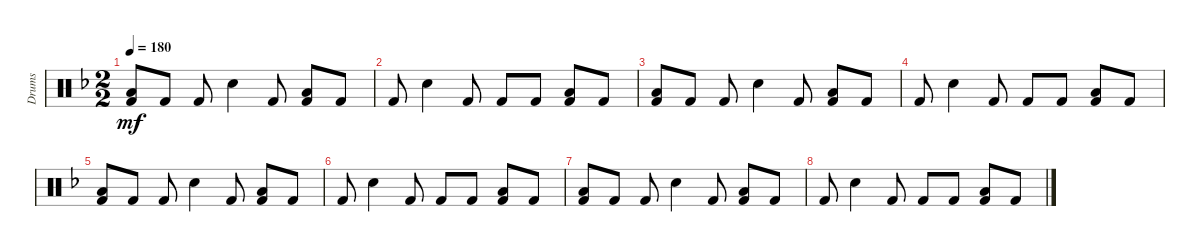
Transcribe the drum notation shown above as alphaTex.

\track ("Drums" "Drums") {instrument percussion}
\staff {score}
\articulation defaults
\ts (2 2)
\tempo 180
\clef neutral
\ks dminor
("Low Floor Tom (hit)" "Kick (hit) 2").8{dy mf} "Kick (hit) 2".8 "Kick (hit) 2".8 "Snare (hit) 2".4 "Kick (hit) 2".8 ("Low Floor Tom (hit)" "Kick (hit) 2").8 "Kick (hit) 2".8 |
"Kick (hit) 2".8 "Snare (hit) 2".4 "Kick (hit) 2".8 "Kick (hit) 2".8 "Kick (hit) 2".8 ("Kick (hit) 2" "Low Floor Tom (hit)").8 "Kick (hit) 2".8 |
("Low Floor Tom (hit)" "Kick (hit) 2").8 "Kick (hit) 2".8 "Kick (hit) 2".8 "Snare (hit) 2".4 "Kick (hit) 2".8 ("Low Floor Tom (hit)" "Kick (hit) 2").8 "Kick (hit) 2".8 |
"Kick (hit) 2".8 "Snare (hit) 2".4 "Kick (hit) 2".8 "Kick (hit) 2".8 "Kick (hit) 2".8 ("Kick (hit) 2" "Low Floor Tom (hit)").8 "Kick (hit) 2".8 |
("Low Floor Tom (hit)" "Kick (hit) 2").8 "Kick (hit) 2".8 "Kick (hit) 2".8 "Snare (hit) 2".4 "Kick (hit) 2".8 ("Low Floor Tom (hit)" "Kick (hit) 2").8 "Kick (hit) 2".8 |
"Kick (hit) 2".8 "Snare (hit) 2".4 "Kick (hit) 2".8 "Kick (hit) 2".8 "Kick (hit) 2".8 ("Kick (hit) 2" "Low Floor Tom (hit)").8 "Kick (hit) 2".8 |
("Low Floor Tom (hit)" "Kick (hit) 2").8 "Kick (hit) 2".8 "Kick (hit) 2".8 "Snare (hit) 2".4 "Kick (hit) 2".8 ("Low Floor Tom (hit)" "Kick (hit) 2").8 "Kick (hit) 2".8 |
"Kick (hit) 2".8 "Snare (hit) 2".4 "Kick (hit) 2".8 "Kick (hit) 2".8 "Kick (hit) 2".8 ("Kick (hit) 2" "Low Floor Tom (hit)").8 "Kick (hit) 2".8
